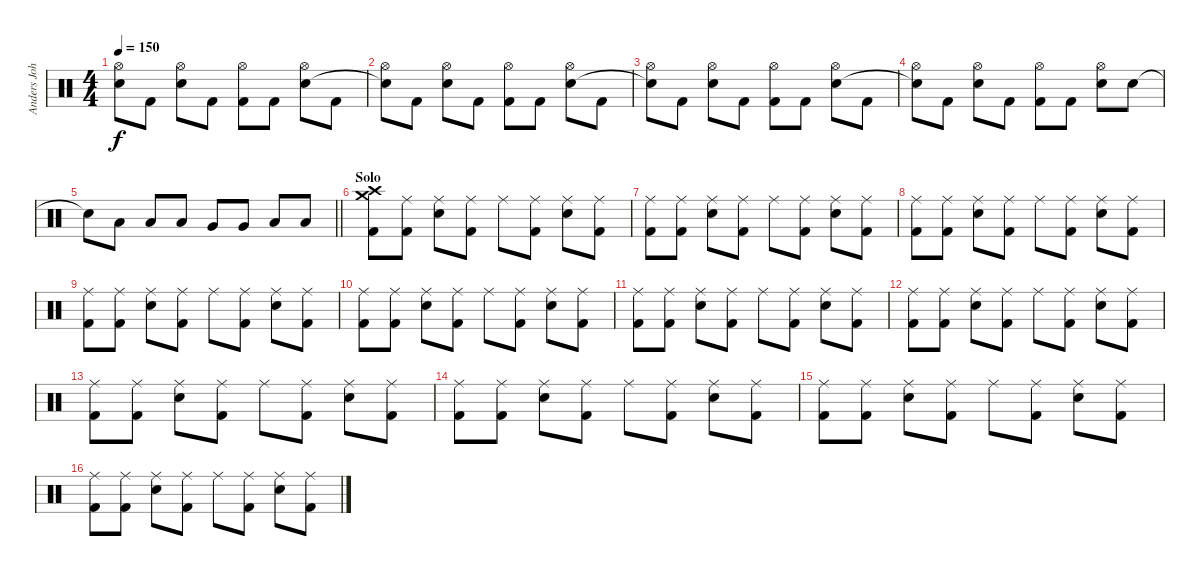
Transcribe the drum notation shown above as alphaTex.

\track ("Anders Johansson" "Anders Joh") {instrument percussion}
\staff {score}
\articulation defaults
\ts (4 4)
\tempo 150
\clef neutral
\ks c
("Hi-Hat (open)" "Snare (hit)"{t}).8{dy f} "Kick (hit) 2".8 ("Hi-Hat (open)" "Electric Snare (hit)").8 "Kick (hit) 2".8 ("Hi-Hat (open)" "Kick (hit) 2").8 "Kick (hit) 2".8 ("Hi-Hat (open)" "Electric Snare (hit)").8 "Kick (hit) 2".8 |
("Hi-Hat (open)" "Snare (hit)"{t}).8 "Kick (hit) 2".8 ("Hi-Hat (open)" "Electric Snare (hit)").8 "Kick (hit) 2".8 ("Hi-Hat (open)" "Kick (hit) 2").8 "Kick (hit) 2".8 ("Hi-Hat (open)" "Electric Snare (hit)").8 "Kick (hit) 2".8 |
("Hi-Hat (open)" "Snare (hit)"{t}).8 "Kick (hit) 2".8 ("Hi-Hat (open)" "Electric Snare (hit)").8 "Kick (hit) 2".8 ("Hi-Hat (open)" "Kick (hit) 2").8 "Kick (hit) 2".8 ("Hi-Hat (open)" "Electric Snare (hit)").8 "Kick (hit) 2".8 |
("Hi-Hat (open)" "Snare (hit)"{t}).8 "Kick (hit) 2".8 ("Hi-Hat (open)" "Electric Snare (hit)").8 "Kick (hit) 2".8 ("Hi-Hat (open)" "Kick (hit) 2").8 "Kick (hit) 2".8 ("Hi-Hat (open)" "Electric Snare (hit)").8 "Electric Snare (hit)".8 |
\barLineRight lightlight "Snare (hit)"{t}.8 "Low Tom (hit)".8 "Low Tom (hit)".8 "Low Tom (hit)".8 "Very Low Tom (hit)".8 "Very Low Tom (hit)".8 "Low Floor Tom (hit)".8 "Low Floor Tom (hit)".8
|
\section ("" "Solo")
("Crash high (hit)" "Crash medium (hit)" "Kick (hit) 2").8 ("Ride (middle)" "Kick (hit) 2").8 ("Ride (middle)" "Snare (hit) 2").8 ("Ride (middle)" "Kick (hit) 2").8 "Ride (middle)".8 ("Ride (middle)" "Kick (hit) 2").8 ("Ride (middle)" "Snare (hit) 2").8 ("Ride (middle)" "Kick (hit) 2").8 |
("Ride (middle)" "Kick (hit) 2").8 ("Ride (middle)" "Kick (hit) 2").8 ("Ride (middle)" "Snare (hit) 2").8 ("Ride (middle)" "Kick (hit) 2").8 "Ride (middle)".8 ("Ride (middle)" "Kick (hit) 2").8 ("Ride (middle)" "Snare (hit) 2").8 ("Ride (middle)" "Kick (hit) 2").8 |
("Ride (middle)" "Kick (hit) 2").8 ("Ride (middle)" "Kick (hit) 2").8 ("Ride (middle)" "Snare (hit) 2").8 ("Ride (middle)" "Kick (hit) 2").8 "Ride (middle)".8 ("Ride (middle)" "Kick (hit) 2").8 ("Ride (middle)" "Snare (hit) 2").8 ("Ride (middle)" "Kick (hit) 2").8 |
("Ride (middle)" "Kick (hit) 2").8 ("Ride (middle)" "Kick (hit) 2").8 ("Ride (middle)" "Snare (hit) 2").8 ("Ride (middle)" "Kick (hit) 2").8 "Ride (middle)".8 ("Ride (middle)" "Kick (hit) 2").8 ("Ride (middle)" "Snare (hit) 2").8 ("Ride (middle)" "Kick (hit) 2").8 |
("Ride (middle)" "Kick (hit) 2").8 ("Ride (middle)" "Kick (hit) 2").8 ("Ride (middle)" "Snare (hit) 2").8 ("Ride (middle)" "Kick (hit) 2").8 "Ride (middle)".8 ("Ride (middle)" "Kick (hit) 2").8 ("Ride (middle)" "Snare (hit) 2").8 ("Ride (middle)" "Kick (hit) 2").8 |
("Ride (middle)" "Kick (hit) 2").8 ("Ride (middle)" "Kick (hit) 2").8 ("Ride (middle)" "Snare (hit) 2").8 ("Ride (middle)" "Kick (hit) 2").8 "Ride (middle)".8 ("Ride (middle)" "Kick (hit) 2").8 ("Ride (middle)" "Snare (hit) 2").8 ("Ride (middle)" "Kick (hit) 2").8 |
("Ride (middle)" "Kick (hit) 2").8 ("Ride (middle)" "Kick (hit) 2").8 ("Ride (middle)" "Snare (hit) 2").8 ("Ride (middle)" "Kick (hit) 2").8 "Ride (middle)".8 ("Ride (middle)" "Kick (hit) 2").8 ("Ride (middle)" "Snare (hit) 2").8 ("Ride (middle)" "Kick (hit) 2").8 |
("Ride (middle)" "Kick (hit) 2").8 ("Ride (middle)" "Kick (hit) 2").8 ("Ride (middle)" "Snare (hit) 2").8 ("Ride (middle)" "Kick (hit) 2").8 "Ride (middle)".8 ("Ride (middle)" "Kick (hit) 2").8 ("Ride (middle)" "Snare (hit) 2").8 ("Ride (middle)" "Kick (hit) 2").8 |
("Ride (middle)" "Kick (hit) 2").8 ("Ride (middle)" "Kick (hit) 2").8 ("Ride (middle)" "Snare (hit) 2").8 ("Ride (middle)" "Kick (hit) 2").8 "Ride (middle)".8 ("Ride (middle)" "Kick (hit) 2").8 ("Ride (middle)" "Snare (hit) 2").8 ("Ride (middle)" "Kick (hit) 2").8 |
("Ride (middle)" "Kick (hit) 2").8 ("Ride (middle)" "Kick (hit) 2").8 ("Ride (middle)" "Snare (hit) 2").8 ("Ride (middle)" "Kick (hit) 2").8 "Ride (middle)".8 ("Ride (middle)" "Kick (hit) 2").8 ("Ride (middle)" "Snare (hit) 2").8 ("Ride (middle)" "Kick (hit) 2").8 |
("Ride (middle)" "Kick (hit) 2").8 ("Ride (middle)" "Kick (hit) 2").8 ("Ride (middle)" "Snare (hit) 2").8 ("Ride (middle)" "Kick (hit) 2").8 "Ride (middle)".8 ("Ride (middle)" "Kick (hit) 2").8 ("Ride (middle)" "Snare (hit) 2").8 ("Ride (middle)" "Kick (hit) 2").8
